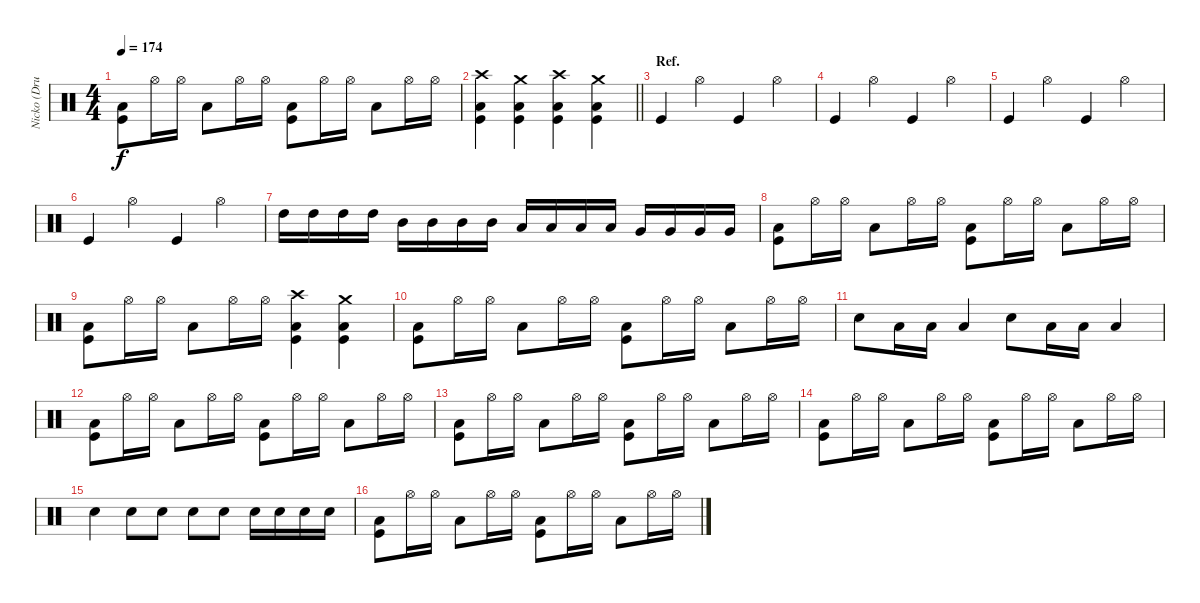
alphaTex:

\track ("Nicko (Drums)" "Nicko (Dru") {instrument percussion}
\staff {score}
\articulation defaults
\ts (4 4)
\tempo 174
\clef neutral
\ks c
("Low Tom (hit)" "Kick (hit)").8{dy f} "Hi-Hat (open)".16 "Hi-Hat (open)".16 "Low Tom (hit)".8 "Hi-Hat (open)".16 "Hi-Hat (open)".16 ("Low Tom (hit)" "Kick (hit)").8 "Hi-Hat (open)".16 "Hi-Hat (open)".16 "Low Tom (hit)".8 "Hi-Hat (open)".16 "Hi-Hat (open)".16 |
\barLineRight lightlight
("Crash high (hit)" "Low Tom (hit)" "Kick (hit)").4 ("Crash medium (hit)" "Low Tom (hit)" "Kick (hit)").4 ("Crash high (hit)" "Low Tom (hit)" "Kick (hit)").4 ("Crash medium (hit)" "Low Tom (hit)" "Kick (hit)").4 |
\section ("" "Ref.")
"Kick (hit)".4 "Hi-Hat (open)".4 "Kick (hit)".4 "Hi-Hat (open)".4 |
"Kick (hit)".4 "Hi-Hat (open)".4 "Kick (hit)".4 "Hi-Hat (open)".4 |
"Kick (hit)".4 "Hi-Hat (open)".4 "Kick (hit)".4 "Hi-Hat (open)".4 |
"Kick (hit)".4 "Hi-Hat (open)".4 "Kick (hit)".4 "Hi-Hat (open)".4 |
"High Tom (hit)".16 "High Tom (hit)".16 "High Tom (hit)".16 "High Tom (hit)".16 "Mid Tom (hit)".16 "Mid Tom (hit)".16 "Mid Tom (hit)".16 "Mid Tom (hit)".16 "Low Tom (hit)".16 "Low Tom (hit)".16 "Low Tom (hit)".16 "Low Tom (hit)".16 "Very Low Tom (hit)".16 "Very Low Tom (hit)".16 "Very Low Tom (hit)".16 "Very Low Tom (hit)".16 |
("Low Tom (hit)" "Kick (hit)").8 "Hi-Hat (open)".16 "Hi-Hat (open)".16 "Low Tom (hit)".8 "Hi-Hat (open)".16 "Hi-Hat (open)".16 ("Low Tom (hit)" "Kick (hit)").8 "Hi-Hat (open)".16 "Hi-Hat (open)".16 "Low Tom (hit)".8 "Hi-Hat (open)".16 "Hi-Hat (open)".16 |
("Low Tom (hit)" "Kick (hit)").8 "Hi-Hat (open)".16 "Hi-Hat (open)".16 "Low Tom (hit)".8 "Hi-Hat (open)".16 "Hi-Hat (open)".16 ("Crash high (hit)" "Low Tom (hit)" "Kick (hit)").4 ("Crash medium (hit)" "Low Tom (hit)" "Kick (hit)").4 |
("Low Tom (hit)" "Kick (hit)").8 "Hi-Hat (open)".16 "Hi-Hat (open)".16 "Low Tom (hit)".8 "Hi-Hat (open)".16 "Hi-Hat (open)".16 ("Low Tom (hit)" "Kick (hit)").8 "Hi-Hat (open)".16 "Hi-Hat (open)".16 "Low Tom (hit)".8 "Hi-Hat (open)".16 "Hi-Hat (open)".16 |
"Snare (hit) 2".8 "Low Tom (hit)".16 "Low Tom (hit)".16 "Low Tom (hit)".4 "Snare (hit) 2".8 "Low Tom (hit)".16 "Low Tom (hit)".16 "Low Tom (hit)".4 |
("Low Tom (hit)" "Kick (hit)").8 "Hi-Hat (open)".16 "Hi-Hat (open)".16 "Low Tom (hit)".8 "Hi-Hat (open)".16 "Hi-Hat (open)".16 ("Low Tom (hit)" "Kick (hit)").8 "Hi-Hat (open)".16 "Hi-Hat (open)".16 "Low Tom (hit)".8 "Hi-Hat (open)".16 "Hi-Hat (open)".16 |
("Low Tom (hit)" "Kick (hit)").8 "Hi-Hat (open)".16 "Hi-Hat (open)".16 "Low Tom (hit)".8 "Hi-Hat (open)".16 "Hi-Hat (open)".16 ("Low Tom (hit)" "Kick (hit)").8 "Hi-Hat (open)".16 "Hi-Hat (open)".16 "Low Tom (hit)".8 "Hi-Hat (open)".16 "Hi-Hat (open)".16 |
("Low Tom (hit)" "Kick (hit)").8 "Hi-Hat (open)".16 "Hi-Hat (open)".16 "Low Tom (hit)".8 "Hi-Hat (open)".16 "Hi-Hat (open)".16 ("Low Tom (hit)" "Kick (hit)").8 "Hi-Hat (open)".16 "Hi-Hat (open)".16 "Low Tom (hit)".8 "Hi-Hat (open)".16 "Hi-Hat (open)".16 |
"Snare (hit) 2".4 "Snare (hit) 2".8 "Snare (hit) 2".8 "Snare (hit) 2".8 "Snare (hit) 2".8 "Snare (hit) 2".16 "Snare (hit) 2".16 "Snare (hit) 2".16 "Snare (hit) 2".16 |
("Low Tom (hit)" "Kick (hit)").8 "Hi-Hat (open)".16 "Hi-Hat (open)".16 "Low Tom (hit)".8 "Hi-Hat (open)".16 "Hi-Hat (open)".16 ("Low Tom (hit)" "Kick (hit)").8 "Hi-Hat (open)".16 "Hi-Hat (open)".16 "Low Tom (hit)".8 "Hi-Hat (open)".16 "Hi-Hat (open)".16
